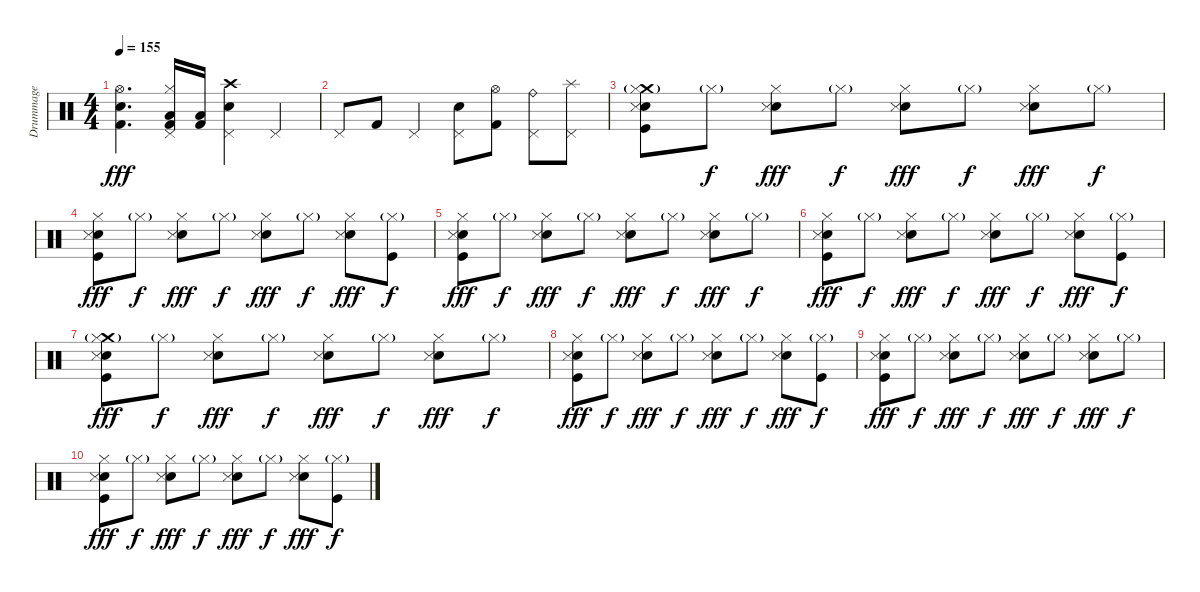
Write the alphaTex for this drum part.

\track ("Drummage" "Drummage") {instrument percussion}
\staff {score}
\articulation defaults
\ts (4 4)
\tempo 155
\clef neutral
\ks c
("Hi-Hat (open)" "Snare (hit) 2" "Kick (hit) 2").4{d dy fff} ("Pedal Hi-Hat (hit)" "Hi-Hat (closed)" "Low Tom (hit)" "Kick (hit) 2").16 ("Low Tom (hit)" "Kick (hit) 2").16 ("Crash high (hit)" "Pedal Hi-Hat (hit)" "Snare (hit) 2").4 "Pedal Hi-Hat (hit)".4 |
"Pedal Hi-Hat (hit)".8 "Kick (hit) 2".8 "Pedal Hi-Hat (hit)".4 ("Pedal Hi-Hat (hit)" "Snare (hit) 2").8 ("Hi-Hat (open)" "Kick (hit) 2").8 ("Pedal Hi-Hat (hit)" "Ride (bell)").8 ("Pedal Hi-Hat (hit)" "Splash (hit)").8 |
("Crash medium (hit)"{g} "Hi-Hat (closed)" "Electric Snare (hit)" "Snare (side stick) 3" "Kick (hit)").8 "Hi-Hat (closed)"{g}.8{dy f} ("Hi-Hat (closed)" "Electric Snare (hit)" "Snare (side stick) 3").8{dy fff} "Hi-Hat (closed)"{g}.8{dy f} ("Hi-Hat (closed)" "Electric Snare (hit)" "Snare (side stick) 3").8{dy fff} "Hi-Hat (closed)"{g}.8{dy f} ("Hi-Hat (closed)" "Electric Snare (hit)" "Snare (side stick) 3").8{dy fff} "Hi-Hat (closed)"{g}.8{dy f} |
("Hi-Hat (closed)" "Electric Snare (hit)" "Snare (side stick) 3" "Kick (hit)").8{dy fff} "Hi-Hat (closed)"{g}.8{dy f} ("Hi-Hat (closed)" "Electric Snare (hit)" "Snare (side stick) 3").8{dy fff} "Hi-Hat (closed)"{g}.8{dy f} ("Hi-Hat (closed)" "Electric Snare (hit)" "Snare (side stick) 3").8{dy fff} "Hi-Hat (closed)"{g}.8{dy f} ("Hi-Hat (closed)" "Electric Snare (hit)" "Snare (side stick) 3").8{dy fff} ("Hi-Hat (closed)"{g} "Kick (hit)").8{dy f} |
("Hi-Hat (closed)" "Electric Snare (hit)" "Snare (side stick) 3" "Kick (hit)").8{dy fff} "Hi-Hat (closed)"{g}.8{dy f} ("Hi-Hat (closed)" "Electric Snare (hit)" "Snare (side stick) 3").8{dy fff} "Hi-Hat (closed)"{g}.8{dy f} ("Hi-Hat (closed)" "Electric Snare (hit)" "Snare (side stick) 3").8{dy fff} "Hi-Hat (closed)"{g}.8{dy f} ("Hi-Hat (closed)" "Electric Snare (hit)" "Snare (side stick) 3").8{dy fff} "Hi-Hat (closed)"{g}.8{dy f} |
("Hi-Hat (closed)" "Electric Snare (hit)" "Snare (side stick) 3" "Kick (hit)").8{dy fff} "Hi-Hat (closed)"{g}.8{dy f} ("Hi-Hat (closed)" "Electric Snare (hit)" "Snare (side stick) 3").8{dy fff} "Hi-Hat (closed)"{g}.8{dy f} ("Hi-Hat (closed)" "Electric Snare (hit)" "Snare (side stick) 3").8{dy fff} "Hi-Hat (closed)"{g}.8{dy f} ("Hi-Hat (closed)" "Electric Snare (hit)" "Snare (side stick) 3").8{dy fff} ("Hi-Hat (closed)"{g} "Kick (hit)").8{dy f} |
("Crash medium (hit)"{g} "Hi-Hat (closed)" "Electric Snare (hit)" "Snare (side stick) 3" "Kick (hit)").8{dy fff volume 0} "Hi-Hat (closed)"{g}.8{dy f} ("Hi-Hat (closed)" "Electric Snare (hit)" "Snare (side stick) 3").8{dy fff} "Hi-Hat (closed)"{g}.8{dy f} ("Hi-Hat (closed)" "Electric Snare (hit)" "Snare (side stick) 3").8{dy fff} "Hi-Hat (closed)"{g}.8{dy f} ("Hi-Hat (closed)" "Electric Snare (hit)" "Snare (side stick) 3").8{dy fff} "Hi-Hat (closed)"{g}.8{dy f} |
("Hi-Hat (closed)" "Electric Snare (hit)" "Snare (side stick) 3" "Kick (hit)").8{dy fff} "Hi-Hat (closed)"{g}.8{dy f} ("Hi-Hat (closed)" "Electric Snare (hit)" "Snare (side stick) 3").8{dy fff} "Hi-Hat (closed)"{g}.8{dy f} ("Hi-Hat (closed)" "Electric Snare (hit)" "Snare (side stick) 3").8{dy fff} "Hi-Hat (closed)"{g}.8{dy f} ("Hi-Hat (closed)" "Electric Snare (hit)" "Snare (side stick) 3").8{dy fff} ("Hi-Hat (closed)"{g} "Kick (hit)").8{dy f} |
("Hi-Hat (closed)" "Electric Snare (hit)" "Snare (side stick) 3" "Kick (hit)").8{dy fff} "Hi-Hat (closed)"{g}.8{dy f} ("Hi-Hat (closed)" "Electric Snare (hit)" "Snare (side stick) 3").8{dy fff} "Hi-Hat (closed)"{g}.8{dy f} ("Hi-Hat (closed)" "Electric Snare (hit)" "Snare (side stick) 3").8{dy fff} "Hi-Hat (closed)"{g}.8{dy f} ("Hi-Hat (closed)" "Electric Snare (hit)" "Snare (side stick) 3").8{dy fff} "Hi-Hat (closed)"{g}.8{dy f} |
("Hi-Hat (closed)" "Electric Snare (hit)" "Snare (side stick) 3" "Kick (hit)").8{dy fff} "Hi-Hat (closed)"{g}.8{dy f} ("Hi-Hat (closed)" "Electric Snare (hit)" "Snare (side stick) 3").8{dy fff} "Hi-Hat (closed)"{g}.8{dy f} ("Hi-Hat (closed)" "Electric Snare (hit)" "Snare (side stick) 3").8{dy fff} "Hi-Hat (closed)"{g}.8{dy f} ("Hi-Hat (closed)" "Electric Snare (hit)" "Snare (side stick) 3").8{dy fff} ("Hi-Hat (closed)"{g} "Kick (hit)").8{dy f}
